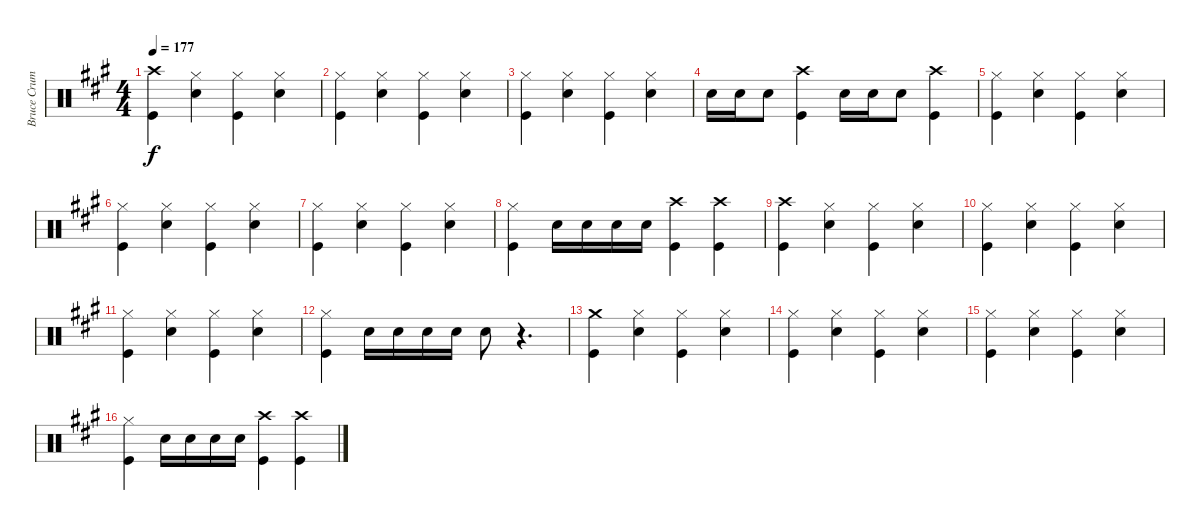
\track ("Bruce Crump Drums" "Bruce Crum") {instrument percussion}
\staff {score}
\articulation defaults
\ts (4 4)
\tempo 177
\clef neutral
\ks a
("Crash high (hit)" "Kick (hit)").4{dy f} ("Hi-Hat (closed)" "Snare (hit) 2").4 ("Hi-Hat (closed)" "Kick (hit)").4 ("Hi-Hat (closed)" "Snare (hit) 2").4 |
("Hi-Hat (closed)" "Kick (hit)").4 ("Hi-Hat (closed)" "Snare (hit) 2").4 ("Hi-Hat (closed)" "Kick (hit)").4 ("Hi-Hat (closed)" "Snare (hit) 2").4 |
("Hi-Hat (closed)" "Kick (hit)").4 ("Hi-Hat (closed)" "Snare (hit) 2").4 ("Hi-Hat (closed)" "Kick (hit)").4 ("Hi-Hat (closed)" "Snare (hit) 2").4 |
"Snare (hit) 2".16 "Snare (hit) 2".16 "Snare (hit) 2".8 ("Crash high (hit)" "Kick (hit)").4 "Snare (hit) 2".16 "Snare (hit) 2".16 "Snare (hit) 2".8 ("Crash high (hit)" "Kick (hit)").4 |
("Hi-Hat (closed)" "Kick (hit)").4 ("Hi-Hat (closed)" "Snare (hit) 2").4 ("Hi-Hat (closed)" "Kick (hit)").4 ("Hi-Hat (closed)" "Snare (hit) 2").4 |
("Hi-Hat (closed)" "Kick (hit)").4 ("Hi-Hat (closed)" "Snare (hit) 2").4 ("Hi-Hat (closed)" "Kick (hit)").4 ("Hi-Hat (closed)" "Snare (hit) 2").4 |
("Hi-Hat (closed)" "Kick (hit)").4 ("Hi-Hat (closed)" "Snare (hit) 2").4 ("Hi-Hat (closed)" "Kick (hit)").4 ("Hi-Hat (closed)" "Snare (hit) 2").4 |
("Hi-Hat (closed)" "Kick (hit)").4 "Snare (hit) 2".16 "Snare (hit) 2".16 "Snare (hit) 2".16 "Snare (hit) 2".16 ("Crash high (hit)" "Kick (hit)").4 ("Crash high (hit)" "Kick (hit)").4 |
("Crash high (hit)" "Kick (hit)").4 ("Hi-Hat (closed)" "Snare (hit) 2").4 ("Hi-Hat (closed)" "Kick (hit)").4 ("Hi-Hat (closed)" "Snare (hit) 2").4 |
("Hi-Hat (closed)" "Kick (hit)").4 ("Hi-Hat (closed)" "Snare (hit) 2").4 ("Hi-Hat (closed)" "Kick (hit)").4 ("Hi-Hat (closed)" "Snare (hit) 2").4 |
("Hi-Hat (closed)" "Kick (hit)").4 ("Hi-Hat (closed)" "Snare (hit) 2").4 ("Hi-Hat (closed)" "Kick (hit)").4 ("Hi-Hat (closed)" "Snare (hit) 2").4 |
("Hi-Hat (closed)" "Kick (hit)").4 "Snare (hit) 2".16 "Snare (hit) 2".16 "Snare (hit) 2".16 "Snare (hit) 2".16 "Snare (hit) 2".8 r.4{d} |
("Crash medium (hit)" "Kick (hit)").4 ("Hi-Hat (closed)" "Snare (hit) 2").4 ("Hi-Hat (closed)" "Kick (hit)").4 ("Hi-Hat (closed)" "Snare (hit) 2").4 |
("Hi-Hat (closed)" "Kick (hit)").4 ("Hi-Hat (closed)" "Snare (hit) 2").4 ("Hi-Hat (closed)" "Kick (hit)").4 ("Hi-Hat (closed)" "Snare (hit) 2").4 |
("Hi-Hat (closed)" "Kick (hit)").4 ("Hi-Hat (closed)" "Snare (hit) 2").4 ("Hi-Hat (closed)" "Kick (hit)").4 ("Hi-Hat (closed)" "Snare (hit) 2").4 |
("Hi-Hat (closed)" "Kick (hit)").4 "Snare (hit) 2".16 "Snare (hit) 2".16 "Snare (hit) 2".16 "Snare (hit) 2".16 ("Crash high (hit)" "Kick (hit)").4 ("Crash high (hit)" "Kick (hit)").4
